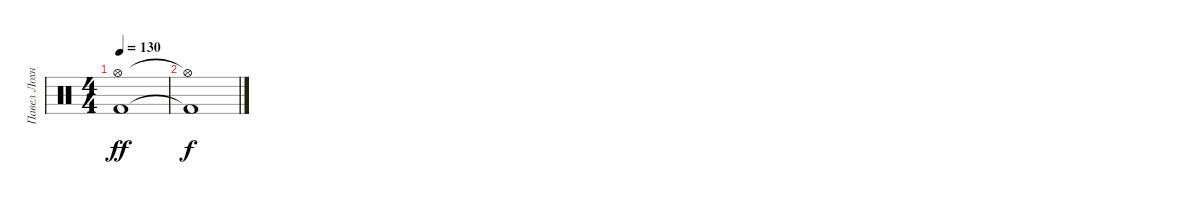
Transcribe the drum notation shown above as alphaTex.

\track ("Павел Лохнин" "Павел Лохн") {instrument percussion}
\staff {score}
\articulation defaults
\ts (4 4)
\tempo 130
\clef neutral
\ks c
("Hi-Hat (open)" "Kick (hit) 2").1{dy ff} |
("Hi-Hat (open)"{t} "Kick (hit) 2"{t}).1{dy f}
